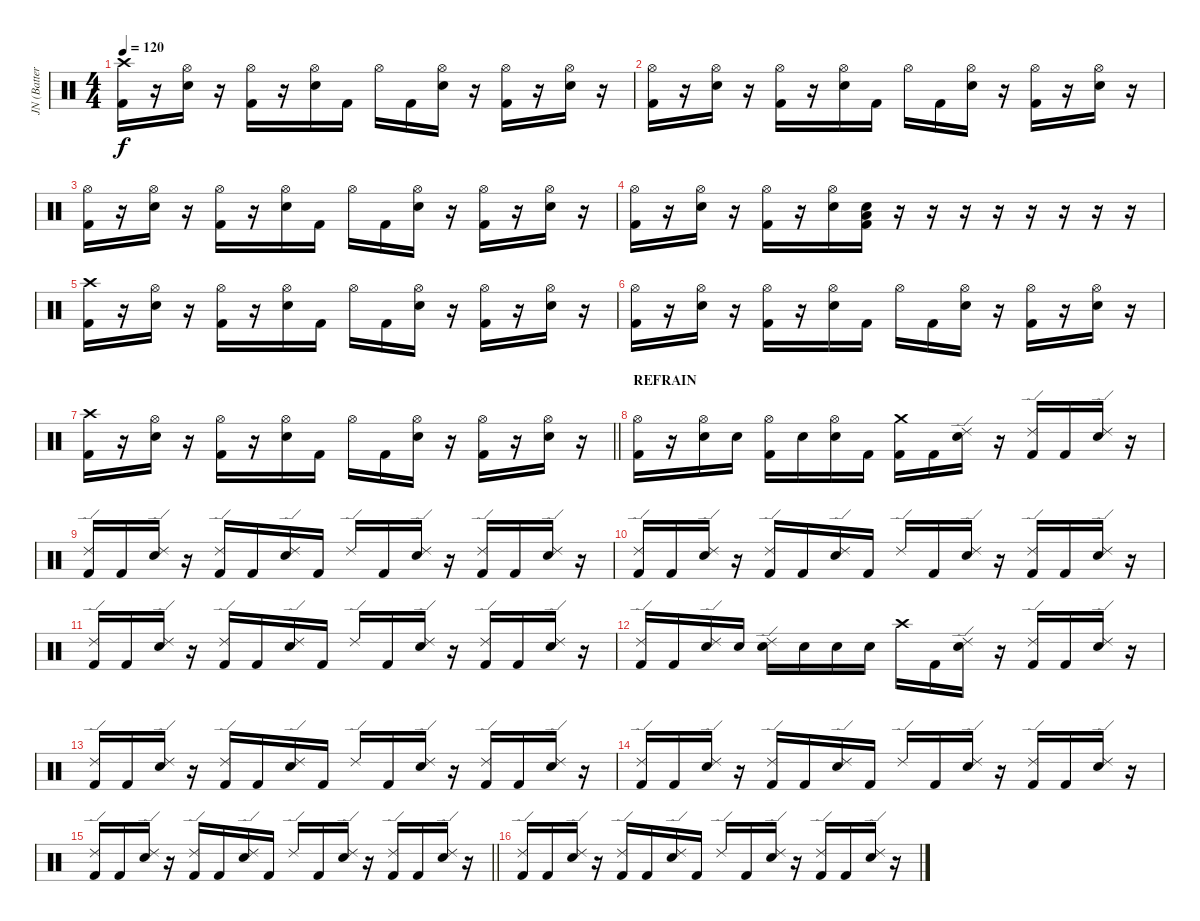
\track ("JN (Batterie)" "JN (Batter") {instrument percussion}
\staff {score}
\articulation defaults
\ts (4 4)
\tempo 120
\clef neutral
\ks c
("Crash high (hit)" "Kick (hit) 2").16{dy f} r.16 ("Hi-Hat (open)" "Electric Snare (hit)").16 r.16 ("Hi-Hat (open)" "Kick (hit) 2").16 r.16 ("Hi-Hat (open)" "Electric Snare (hit)").16 "Kick (hit) 2".16 "Hi-Hat (open)".16 "Kick (hit) 2".16 ("Hi-Hat (open)" "Electric Snare (hit)").16 r.16 ("Hi-Hat (open)" "Kick (hit) 2").16 r.16 ("Hi-Hat (open)" "Electric Snare (hit)").16 r.16 |
("Hi-Hat (open)" "Kick (hit) 2").16 r.16 ("Hi-Hat (open)" "Electric Snare (hit)").16 r.16 ("Hi-Hat (open)" "Kick (hit) 2").16 r.16 ("Hi-Hat (open)" "Electric Snare (hit)").16 "Kick (hit) 2".16 "Hi-Hat (open)".16 "Kick (hit) 2".16 ("Hi-Hat (open)" "Electric Snare (hit)").16 r.16 ("Hi-Hat (open)" "Kick (hit) 2").16 r.16 ("Hi-Hat (open)" "Electric Snare (hit)").16 r.16 |
("Hi-Hat (open)" "Kick (hit) 2").16 r.16 ("Hi-Hat (open)" "Electric Snare (hit)").16 r.16 ("Hi-Hat (open)" "Kick (hit) 2").16 r.16 ("Hi-Hat (open)" "Electric Snare (hit)").16 "Kick (hit) 2".16 "Hi-Hat (open)".16 "Kick (hit) 2".16 ("Hi-Hat (open)" "Electric Snare (hit)").16 r.16 ("Hi-Hat (open)" "Kick (hit) 2").16 r.16 ("Hi-Hat (open)" "Electric Snare (hit)").16 r.16 |
("Hi-Hat (open)" "Kick (hit) 2").16 r.16 ("Hi-Hat (open)" "Electric Snare (hit)").16 r.16 ("Hi-Hat (open)" "Kick (hit) 2").16 r.16 ("Hi-Hat (open)" "Electric Snare (hit)").16 ("Electric Snare (hit)" "Low Tom (hit)" "Kick (hit) 2").16 r.16 r.16 r.16 r.16 r.16 r.16 r.16 r.16 |
("Crash high (hit)" "Kick (hit) 2").16 r.16 ("Hi-Hat (open)" "Electric Snare (hit)").16 r.16 ("Hi-Hat (open)" "Kick (hit) 2").16 r.16 ("Hi-Hat (open)" "Electric Snare (hit)").16 "Kick (hit) 2".16 "Hi-Hat (open)".16 "Kick (hit) 2".16 ("Hi-Hat (open)" "Electric Snare (hit)").16 r.16 ("Hi-Hat (open)" "Kick (hit) 2").16 r.16 ("Hi-Hat (open)" "Electric Snare (hit)").16 r.16 |
("Hi-Hat (open)" "Kick (hit) 2").16 r.16 ("Hi-Hat (open)" "Electric Snare (hit)").16 r.16 ("Hi-Hat (open)" "Kick (hit) 2").16 r.16 ("Hi-Hat (open)" "Electric Snare (hit)").16 "Kick (hit) 2".16 "Hi-Hat (open)".16 "Kick (hit) 2".16 ("Hi-Hat (open)" "Electric Snare (hit)").16 r.16 ("Hi-Hat (open)" "Kick (hit) 2").16 r.16 ("Hi-Hat (open)" "Electric Snare (hit)").16 r.16 |
\barLineRight lightlight
("Crash high (hit)" "Kick (hit) 2").16 r.16 ("Hi-Hat (open)" "Electric Snare (hit)").16 r.16 ("Hi-Hat (open)" "Kick (hit) 2").16 r.16 ("Hi-Hat (open)" "Electric Snare (hit)").16 "Kick (hit) 2".16 "Hi-Hat (open)".16 "Kick (hit) 2".16 ("Hi-Hat (open)" "Electric Snare (hit)").16 r.16 ("Hi-Hat (open)" "Kick (hit) 2").16 r.16 ("Hi-Hat (open)" "Electric Snare (hit)").16 r.16 |
\section ("" "REFRAIN")
("Hi-Hat (open)" "Kick (hit) 2").16 r.16 ("Hi-Hat (open)" "Electric Snare (hit)").16 "Electric Snare (hit)".16 ("Hi-Hat (open)" "Kick (hit) 2").16 "Electric Snare (hit)".16 ("Hi-Hat (open)" "Electric Snare (hit)").16 "Kick (hit) 2".16 ("Crash medium (hit)" "Kick (hit) 2").16 "Kick (hit) 2".16 ("Ride (edge) 2" "Electric Snare (hit)").16 r.16 ("Ride (edge) 2" "Kick (hit) 2").16 "Kick (hit) 2".16 ("Ride (edge) 2" "Electric Snare (hit)").16 r.16 |
("Ride (edge) 2" "Kick (hit) 2").16 "Kick (hit) 2".16 ("Ride (edge) 2" "Electric Snare (hit)").16 r.16 ("Ride (edge) 2" "Kick (hit) 2").16 "Kick (hit) 2".16 ("Ride (edge) 2" "Electric Snare (hit)").16 "Kick (hit) 2".16 "Ride (edge) 2".16 "Kick (hit) 2".16 ("Ride (edge) 2" "Electric Snare (hit)").16 r.16 ("Ride (edge) 2" "Kick (hit) 2").16 "Kick (hit) 2".16 ("Ride (edge) 2" "Electric Snare (hit)").16 r.16 |
("Ride (edge) 2" "Kick (hit) 2").16 "Kick (hit) 2".16 ("Ride (edge) 2" "Electric Snare (hit)").16 r.16 ("Ride (edge) 2" "Kick (hit) 2").16 "Kick (hit) 2".16 ("Ride (edge) 2" "Electric Snare (hit)").16 "Kick (hit) 2".16 "Ride (edge) 2".16 "Kick (hit) 2".16 ("Ride (edge) 2" "Electric Snare (hit)").16 r.16 ("Ride (edge) 2" "Kick (hit) 2").16 "Kick (hit) 2".16 ("Ride (edge) 2" "Electric Snare (hit)").16 r.16 |
("Ride (edge) 2" "Kick (hit) 2").16 "Kick (hit) 2".16 ("Ride (edge) 2" "Electric Snare (hit)").16 r.16 ("Ride (edge) 2" "Kick (hit) 2").16 "Kick (hit) 2".16 ("Ride (edge) 2" "Electric Snare (hit)").16 "Kick (hit) 2".16 "Ride (edge) 2".16 "Kick (hit) 2".16 ("Ride (edge) 2" "Electric Snare (hit)").16 r.16 ("Ride (edge) 2" "Kick (hit) 2").16 "Kick (hit) 2".16 ("Ride (edge) 2" "Electric Snare (hit)").16 r.16 |
("Ride (edge) 2" "Kick (hit) 2").16 "Kick (hit) 2".16 ("Ride (edge) 2" "Electric Snare (hit)").16 "Electric Snare (hit)".16 ("Ride (edge) 2" "Electric Snare (hit)").16 "Electric Snare (hit)".16 "Electric Snare (hit)".16 "Electric Snare (hit)".16 "Crash high (hit)".16 "Kick (hit) 2".16 ("Ride (edge) 2" "Electric Snare (hit)").16 r.16 ("Ride (edge) 2" "Kick (hit) 2").16 "Kick (hit) 2".16 ("Ride (edge) 2" "Electric Snare (hit)").16 r.16 |
("Ride (edge) 2" "Kick (hit) 2").16 "Kick (hit) 2".16 ("Ride (edge) 2" "Electric Snare (hit)").16 r.16 ("Ride (edge) 2" "Kick (hit) 2").16 "Kick (hit) 2".16 ("Ride (edge) 2" "Electric Snare (hit)").16 "Kick (hit) 2".16 "Ride (edge) 2".16 "Kick (hit) 2".16 ("Ride (edge) 2" "Electric Snare (hit)").16 r.16 ("Ride (edge) 2" "Kick (hit) 2").16 "Kick (hit) 2".16 ("Ride (edge) 2" "Electric Snare (hit)").16 r.16 |
("Ride (edge) 2" "Kick (hit) 2").16 "Kick (hit) 2".16 ("Ride (edge) 2" "Electric Snare (hit)").16 r.16 ("Ride (edge) 2" "Kick (hit) 2").16 "Kick (hit) 2".16 ("Ride (edge) 2" "Electric Snare (hit)").16 "Kick (hit) 2".16 "Ride (edge) 2".16 "Kick (hit) 2".16 ("Ride (edge) 2" "Electric Snare (hit)").16 r.16 ("Ride (edge) 2" "Kick (hit) 2").16 "Kick (hit) 2".16 ("Ride (edge) 2" "Electric Snare (hit)").16 r.16 |
\barLineRight lightlight
("Ride (edge) 2" "Kick (hit) 2").16 "Kick (hit) 2".16 ("Ride (edge) 2" "Electric Snare (hit)").16 r.16 ("Ride (edge) 2" "Kick (hit) 2").16 "Kick (hit) 2".16 ("Ride (edge) 2" "Electric Snare (hit)").16 "Kick (hit) 2".16 "Ride (edge) 2".16 "Kick (hit) 2".16 ("Ride (edge) 2" "Electric Snare (hit)").16 r.16 ("Ride (edge) 2" "Kick (hit) 2").16 "Kick (hit) 2".16 ("Ride (edge) 2" "Electric Snare (hit)").16 r.16 |
("Ride (edge) 2" "Kick (hit) 2").16 "Kick (hit) 2".16 ("Ride (edge) 2" "Electric Snare (hit)").16 r.16 ("Ride (edge) 2" "Kick (hit) 2").16 "Kick (hit) 2".16 ("Ride (edge) 2" "Electric Snare (hit)").16 "Kick (hit) 2".16 "Ride (edge) 2".16 "Kick (hit) 2".16 ("Ride (edge) 2" "Electric Snare (hit)").16 r.16 ("Ride (edge) 2" "Kick (hit) 2").16 "Kick (hit) 2".16 ("Ride (edge) 2" "Electric Snare (hit)").16 r.16
